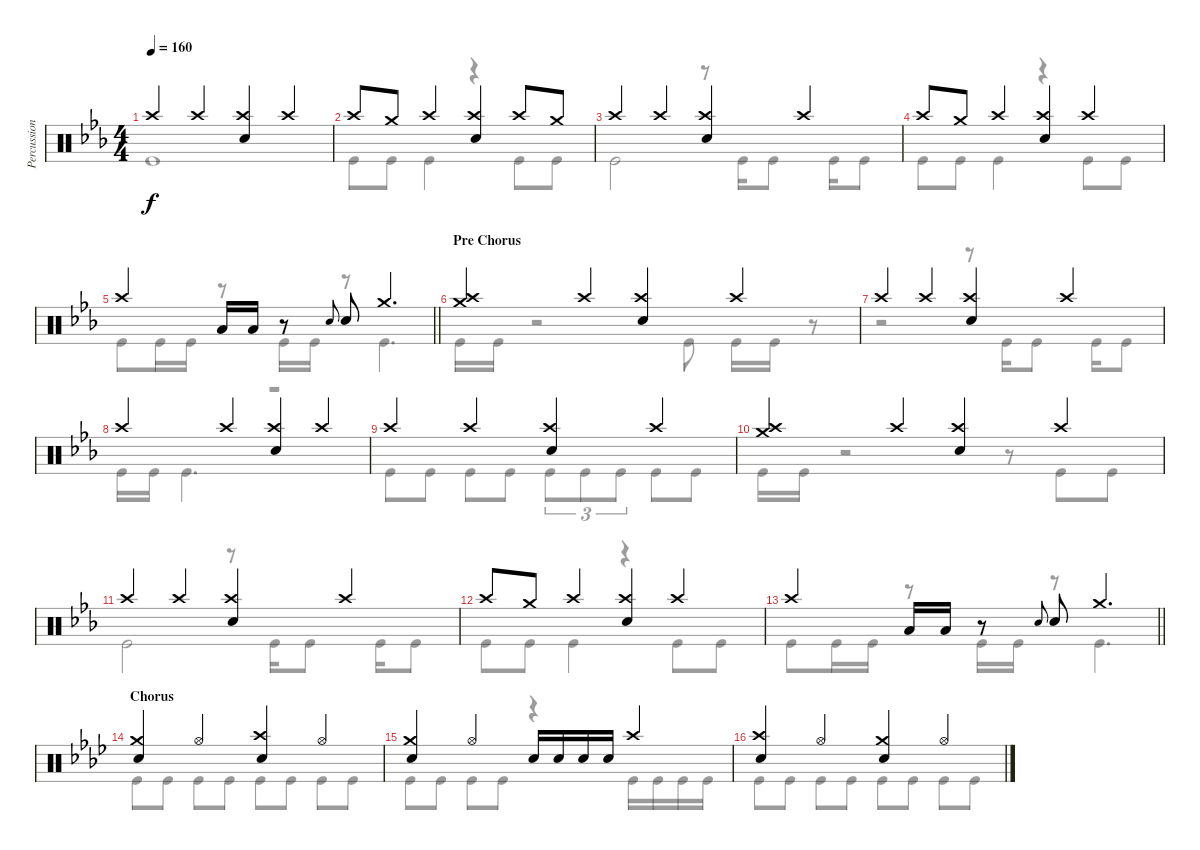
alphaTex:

\track ("Percussion" "Percussion") {instrument percussion}
\staff {score}
\articulation defaults
\voice
\ts (4 4)
\tempo 160
\clef neutral
\ks cminor "Crash high (hit)".4{dy f} "Crash high (hit)".4
("Crash high (hit)" "Electric Snare (hit)").4 "Crash high (hit)".4 |
"Crash high (hit)".8 "Crash medium (hit)".8 "Crash high (hit)".4 ("Crash high (hit)" "Electric Snare (hit)").4 "Crash high (hit)".8 "Crash medium (hit)".8 |
"Crash high (hit)".4 "Crash high (hit)".4 ("Crash high (hit)" "Electric Snare (hit)").4 "Crash high (hit)".4 |
"Crash high (hit)".8 "Crash medium (hit)".8 "Crash high (hit)".4 ("Crash high (hit)" "Electric Snare (hit)").4 "Crash high (hit)".4 |
\barLineRight lightlight "Crash high (hit)".4 "Low Tom (hit)".16 "Low Tom (hit)".16
r.8 "Electric Snare (hit)".8{gr onbeat} "Electric Snare (hit)".8 "Crash medium (hit)".4{d} |
\section ("" "Pre Chorus")
("Crash medium (hit)" "Crash high (hit)").4 "Crash high (hit)".4 ("Crash high (hit)" "Electric Snare (hit)").4 "Crash high (hit)".4 |
"Crash high (hit)".4 "Crash high (hit)".4 ("Crash high (hit)" "Electric Snare (hit)").4 "Crash high (hit)".4 |
"Crash high (hit)".4 "Crash high (hit)".4 ("Crash high (hit)" "Electric Snare (hit)").4 "Crash high (hit)".4 |
"Crash high (hit)".4 "Crash high (hit)".4 ("Crash high (hit)" "Electric Snare (hit)").4 "Crash high (hit)".4 |
("Crash medium (hit)" "Crash high (hit)").4 "Crash high (hit)".4 ("Crash high (hit)" "Electric Snare (hit)").4 "Crash high (hit)".4 |
"Crash high (hit)".4 "Crash high (hit)".4 ("Crash high (hit)" "Electric Snare (hit)").4 "Crash high (hit)".4 |
"Crash high (hit)".8 "Crash medium (hit)".8 "Crash high (hit)".4 ("Crash high (hit)" "Electric Snare (hit)").4 "Crash high (hit)".4 |
\barLineRight lightlight "Crash high (hit)".4 "Low Tom (hit)".16 "Low Tom (hit)".16
r.8 "Electric Snare (hit)".8{gr onbeat} "Electric Snare (hit)".8 "Crash medium (hit)".4{d} |
\section ("" "Chorus")
\ks fminor
("Crash medium (hit)" "Electric Snare (hit)").4 "Hi-Hat (open)".4 ("Crash high (hit)" "Electric Snare (hit)").4 "Hi-Hat (open)".4 |
("Crash medium (hit)" "Electric Snare (hit)").4 "Hi-Hat (open)".4 "Electric Snare (hit)".16 "Electric Snare (hit)".16 "Electric Snare (hit)".16 "Electric Snare (hit)".16 "Crash high (hit)".4 |
("Crash high (hit)" "Electric Snare (hit)").4 "Hi-Hat (open)".4 ("Crash medium (hit)" "Electric Snare (hit)").4 "Hi-Hat (open)".4
\voice
\clef neutral
\ottava regular
\simile none
\ks cminor "Kick (hit)".1{dy f}
|
"Kick (hit)".8 "Kick (hit)".8 "Kick (hit)".4 r.4 "Kick (hit)".8 "Kick (hit)".8 |
"Kick (hit)".2 r.8 "Kick (hit)".16 "Kick (hit)".8 "Kick (hit)".16 "Kick (hit)".8 |
"Kick (hit)".8 "Kick (hit)".8 "Kick (hit)".4 r.4 "Kick (hit)".8 "Kick (hit)".8 |
\barLineRight lightlight "Kick (hit)".8 "Kick (hit)".16 "Kick (hit)".16
r.8 "Kick (hit)".16 "Kick (hit)".16 r.8 "Kick (hit)".4{d} |
"Kick (hit)".16 "Kick (hit)".16 r.2 "Kick (hit)".8 "Kick (hit)".16 "Kick (hit)".16 r.8 |
r.2 r.8 "Kick (hit)".16 "Kick (hit)".8 "Kick (hit)".16 "Kick (hit)".8 |
"Kick (hit)".16 "Kick (hit)".16 "Kick (hit)".4{d} r.2 |
"Kick (hit)".8 "Kick (hit)".8 "Kick (hit)".8 "Kick (hit)".8 "Kick (hit)".8{tu (3 2)} "Kick (hit)".8{tu (3 2)} "Kick (hit)".8{tu (3 2)} "Kick (hit)".8 "Kick (hit)".8 |
"Kick (hit)".16 "Kick (hit)".16 r.2 r.8 "Kick (hit)".8 "Kick (hit)".8 |
"Kick (hit)".2 r.8 "Kick (hit)".16 "Kick (hit)".8 "Kick (hit)".16 "Kick (hit)".8 |
"Kick (hit)".8 "Kick (hit)".8 "Kick (hit)".4 r.4 "Kick (hit)".8 "Kick (hit)".8 |
\barLineRight lightlight "Kick (hit)".8 "Kick (hit)".16 "Kick (hit)".16
r.8 "Kick (hit)".16 "Kick (hit)".16 r.8 "Kick (hit)".4{d} |
\ks fminor "Kick (hit)".8 "Kick (hit)".8 "Kick (hit)".8 "Kick (hit)".8 "Kick (hit)".8 "Kick (hit)".8 "Kick (hit)".8 "Kick (hit)".8
|
"Kick (hit)".8 "Kick (hit)".8 "Kick (hit)".8 "Kick (hit)".8 r.4 "Kick (hit)".16 "Kick (hit)".16 "Kick (hit)".16 "Kick (hit)".16 |
"Kick (hit)".8 "Kick (hit)".8 "Kick (hit)".8 "Kick (hit)".8 "Kick (hit)".8 "Kick (hit)".8 "Kick (hit)".8 "Kick (hit)".8
